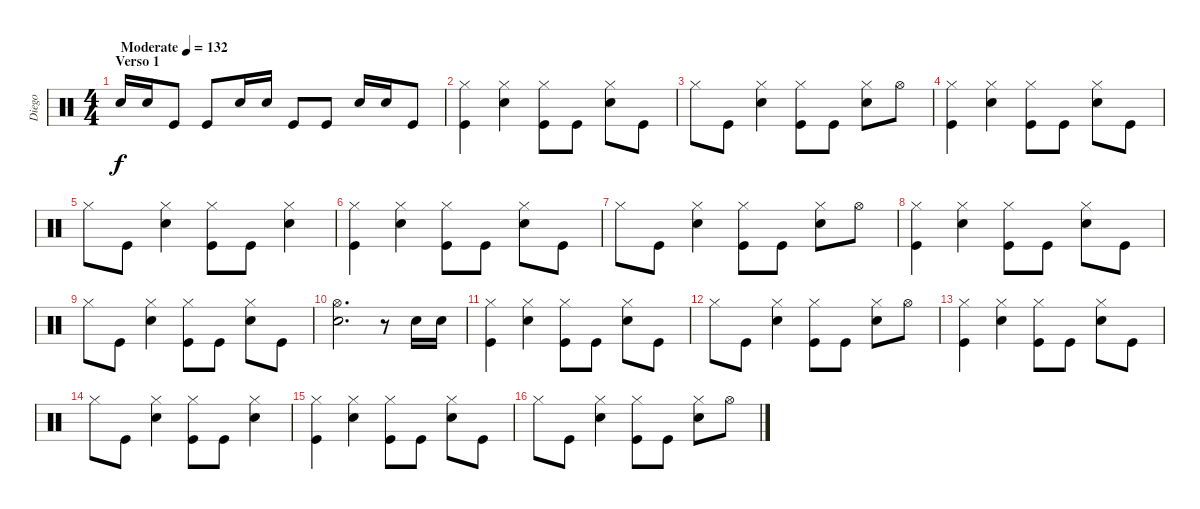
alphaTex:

\track ("Diego" "Diego") {instrument percussion}
\staff {score}
\articulation defaults
\ts (4 4)
\section ("" "Verso 1")
\tempo (132 "Moderate")
\clef neutral
\ks c "Snare (hit) 2".16{dy f} "Snare (hit) 2".16 "Kick (hit)".8 "Kick (hit)".8 "Snare (hit) 2".16 "Snare (hit) 2".16 "Kick (hit)".8 "Kick (hit)".8 "Snare (hit) 2".16 "Snare (hit) 2".16 "Kick (hit)".8
|
("Hi-Hat (closed)" "Kick (hit)").4 ("Hi-Hat (closed)" "Snare (hit) 2").4 ("Hi-Hat (closed)" "Kick (hit)").8 "Kick (hit)".8 ("Hi-Hat (closed)" "Snare (hit) 2").8 "Kick (hit)".8 |
"Hi-Hat (closed)".8 "Kick (hit)".8 ("Hi-Hat (closed)" "Snare (hit) 2").4 ("Hi-Hat (closed)" "Kick (hit)").8 "Kick (hit)".8 ("Hi-Hat (closed)" "Snare (hit) 2").8 "Hi-Hat (open)".8 |
("Hi-Hat (closed)" "Kick (hit)").4 ("Hi-Hat (closed)" "Snare (hit) 2").4 ("Hi-Hat (closed)" "Kick (hit)").8 "Kick (hit)".8 ("Hi-Hat (closed)" "Snare (hit) 2").8 "Kick (hit)".8 |
"Hi-Hat (closed)".8 "Kick (hit)".8 ("Hi-Hat (closed)" "Snare (hit) 2").4 ("Hi-Hat (closed)" "Kick (hit)").8 "Kick (hit)".8 ("Hi-Hat (closed)" "Snare (hit) 2").4 |
("Hi-Hat (closed)" "Kick (hit)").4 ("Hi-Hat (closed)" "Snare (hit) 2").4 ("Hi-Hat (closed)" "Kick (hit)").8 "Kick (hit)".8 ("Hi-Hat (closed)" "Snare (hit) 2").8 "Kick (hit)".8 |
"Hi-Hat (closed)".8 "Kick (hit)".8 ("Hi-Hat (closed)" "Snare (hit) 2").4 ("Hi-Hat (closed)" "Kick (hit)").8 "Kick (hit)".8 ("Hi-Hat (closed)" "Snare (hit) 2").8 "Hi-Hat (open)".8 |
("Hi-Hat (closed)" "Kick (hit)").4 ("Hi-Hat (closed)" "Snare (hit) 2").4 ("Hi-Hat (closed)" "Kick (hit)").8 "Kick (hit)".8 ("Hi-Hat (closed)" "Snare (hit) 2").8 "Kick (hit)".8 |
"Hi-Hat (closed)".8 "Kick (hit)".8 ("Hi-Hat (closed)" "Snare (hit) 2").4 ("Hi-Hat (closed)" "Kick (hit)").8 "Kick (hit)".8 ("Hi-Hat (closed)" "Snare (hit) 2").8 "Kick (hit)".8 |
("Hi-Hat (open)" "Snare (hit) 2").2{d} r.8 "Snare (hit) 2".16 "Snare (hit) 2".16 |
("Hi-Hat (closed)" "Kick (hit)").4 ("Hi-Hat (closed)" "Snare (hit) 2").4 ("Hi-Hat (closed)" "Kick (hit)").8 "Kick (hit)".8 ("Hi-Hat (closed)" "Snare (hit) 2").8 "Kick (hit)".8 |
"Hi-Hat (closed)".8 "Kick (hit)".8 ("Hi-Hat (closed)" "Snare (hit) 2").4 ("Hi-Hat (closed)" "Kick (hit)").8 "Kick (hit)".8 ("Hi-Hat (closed)" "Snare (hit) 2").8 "Hi-Hat (open)".8 |
("Hi-Hat (closed)" "Kick (hit)").4 ("Hi-Hat (closed)" "Snare (hit) 2").4 ("Hi-Hat (closed)" "Kick (hit)").8 "Kick (hit)".8 ("Hi-Hat (closed)" "Snare (hit) 2").8 "Kick (hit)".8 |
"Hi-Hat (closed)".8 "Kick (hit)".8 ("Hi-Hat (closed)" "Snare (hit) 2").4 ("Hi-Hat (closed)" "Kick (hit)").8 "Kick (hit)".8 ("Hi-Hat (closed)" "Snare (hit) 2").4 |
("Hi-Hat (closed)" "Kick (hit)").4 ("Hi-Hat (closed)" "Snare (hit) 2").4 ("Hi-Hat (closed)" "Kick (hit)").8 "Kick (hit)".8 ("Hi-Hat (closed)" "Snare (hit) 2").8 "Kick (hit)".8 |
"Hi-Hat (closed)".8 "Kick (hit)".8 ("Hi-Hat (closed)" "Snare (hit) 2").4 ("Hi-Hat (closed)" "Kick (hit)").8 "Kick (hit)".8 ("Hi-Hat (closed)" "Snare (hit) 2").8 "Hi-Hat (open)".8
